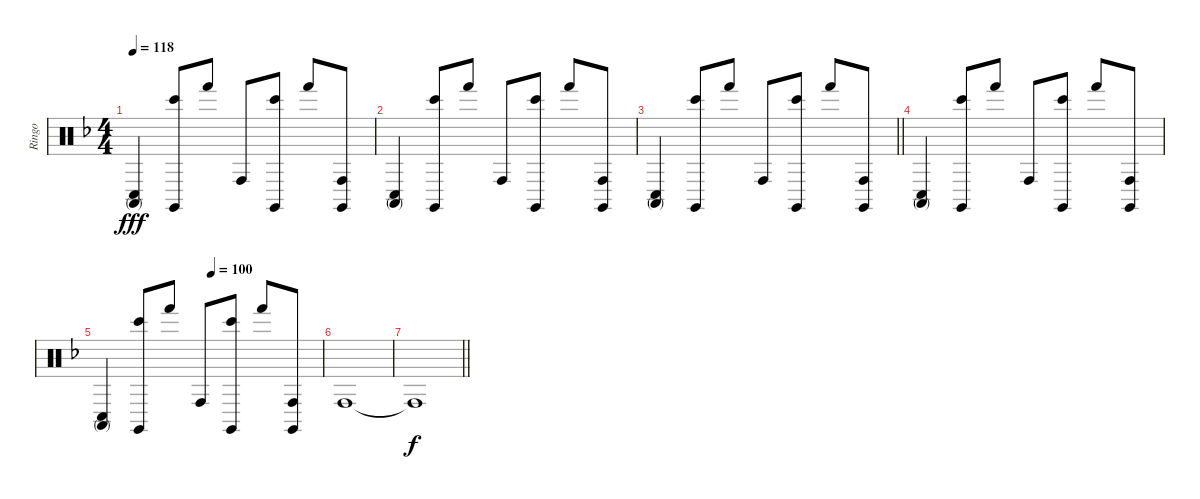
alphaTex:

\track ("Ringo" "Ringo") {instrument percussion}
\staff {score}
\articulation defaults
\ts (4 4)
\tempo 118
\clef neutral
\ks f
("Conga low (hit)" "Conga high (mute)").4{dy fff} ("Claves (hit)" "Bongo High (hit)").8 "Hand (hit)".8 "Conga high (hit)".8 ("Claves (hit)" "Bongo High (hit)").8 "Hand (hit)".8 ("Claves (hit)" "Conga high (hit)").8 |
("Conga low (hit)" "Conga high (mute)").4 ("Claves (hit)" "Bongo High (hit)").8 "Hand (hit)".8 "Conga high (hit)".8 ("Claves (hit)" "Bongo High (hit)").8 "Hand (hit)".8 ("Claves (hit)" "Conga high (hit)").8 |
\barLineRight lightlight
("Conga low (hit)" "Conga high (mute)").4 ("Claves (hit)" "Bongo High (hit)").8 "Hand (hit)".8 "Conga high (hit)".8 ("Claves (hit)" "Bongo High (hit)").8 "Hand (hit)".8 ("Claves (hit)" "Conga high (hit)").8 |
("Conga low (hit)" "Conga high (mute)").4 ("Claves (hit)" "Bongo High (hit)").8 "Hand (hit)".8 "Conga high (hit)".8 ("Claves (hit)" "Bongo High (hit)").8 "Hand (hit)".8 ("Claves (hit)" "Conga high (hit)").8 |
\tempo (100 0.5)
("Conga low (hit)" "Conga high (mute)").4 ("Claves (hit)" "Bongo High (hit)").8 "Hand (hit)".8 "Conga high (hit)".8 ("Claves (hit)" "Bongo High (hit)").8 "Hand (hit)".8 ("Claves (hit)" "Conga high (hit)").8 |
"Conga high (hit)".1 |
\barLineRight lightlight "Conga high (hit)"{t}.1{dy f}
